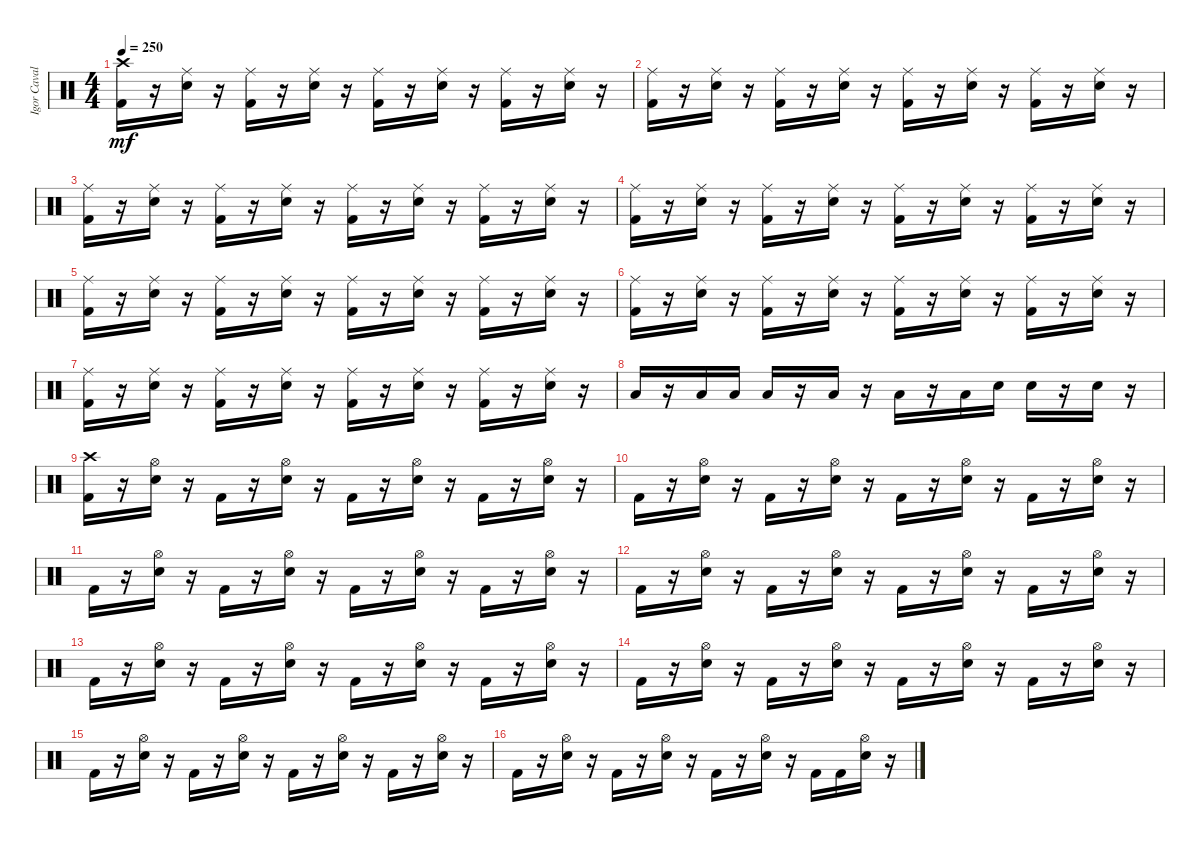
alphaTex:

\track ("Igor Cavalera" "Igor Caval") {instrument percussion}
\staff {score}
\articulation defaults
\ts (4 4)
\tempo 250
\clef neutral
\ks c
("Kick (hit) 2" "Crash high (hit)").16{dy mf} r.16 ("Snare (hit) 2" "Ride (middle)").16 r.16 ("Kick (hit) 2" "Ride (middle)").16 r.16 ("Snare (hit) 2" "Ride (middle)").16 r.16 ("Kick (hit) 2" "Ride (middle)").16 r.16 ("Snare (hit) 2" "Ride (middle)").16 r.16 ("Kick (hit) 2" "Ride (middle)").16 r.16 ("Snare (hit) 2" "Ride (middle)").16 r.16 |
("Kick (hit) 2" "Ride (middle)").16 r.16 ("Snare (hit) 2" "Ride (middle)").16 r.16 ("Kick (hit) 2" "Ride (middle)").16 r.16 ("Snare (hit) 2" "Ride (middle)").16 r.16 ("Kick (hit) 2" "Ride (middle)").16 r.16 ("Snare (hit) 2" "Ride (middle)").16 r.16 ("Kick (hit) 2" "Ride (middle)").16 r.16 ("Snare (hit) 2" "Ride (middle)").16 r.16 |
("Kick (hit) 2" "Ride (middle)").16 r.16 ("Snare (hit) 2" "Ride (middle)").16 r.16 ("Kick (hit) 2" "Ride (middle)").16 r.16 ("Snare (hit) 2" "Ride (middle)").16 r.16 ("Kick (hit) 2" "Ride (middle)").16 r.16 ("Snare (hit) 2" "Ride (middle)").16 r.16 ("Kick (hit) 2" "Ride (middle)").16 r.16 ("Snare (hit) 2" "Ride (middle)").16 r.16 |
("Kick (hit) 2" "Ride (middle)").16 r.16 ("Snare (hit) 2" "Ride (middle)").16 r.16 ("Kick (hit) 2" "Ride (middle)").16 r.16 ("Snare (hit) 2" "Ride (middle)").16 r.16 ("Kick (hit) 2" "Ride (middle)").16 r.16 ("Snare (hit) 2" "Ride (middle)").16 r.16 ("Kick (hit) 2" "Ride (middle)").16 r.16 ("Snare (hit) 2" "Ride (middle)").16 r.16 |
("Kick (hit) 2" "Ride (middle)").16 r.16 ("Snare (hit) 2" "Ride (middle)").16 r.16 ("Kick (hit) 2" "Ride (middle)").16 r.16 ("Snare (hit) 2" "Ride (middle)").16 r.16 ("Kick (hit) 2" "Ride (middle)").16 r.16 ("Snare (hit) 2" "Ride (middle)").16 r.16 ("Kick (hit) 2" "Ride (middle)").16 r.16 ("Snare (hit) 2" "Ride (middle)").16 r.16 |
("Kick (hit) 2" "Ride (middle)").16 r.16 ("Snare (hit) 2" "Ride (middle)").16 r.16 ("Kick (hit) 2" "Ride (middle)").16 r.16 ("Snare (hit) 2" "Ride (middle)").16 r.16 ("Kick (hit) 2" "Ride (middle)").16 r.16 ("Snare (hit) 2" "Ride (middle)").16 r.16 ("Kick (hit) 2" "Ride (middle)").16 r.16 ("Snare (hit) 2" "Ride (middle)").16 r.16 |
("Kick (hit) 2" "Ride (middle)").16 r.16 ("Snare (hit) 2" "Ride (middle)").16 r.16 ("Kick (hit) 2" "Ride (middle)").16 r.16 ("Snare (hit) 2" "Ride (middle)").16 r.16 ("Kick (hit) 2" "Ride (middle)").16 r.16 ("Snare (hit) 2" "Ride (middle)").16 r.16 ("Kick (hit) 2" "Ride (middle)").16 r.16 ("Snare (hit) 2" "Ride (middle)").16 r.16 |
"Low Tom (hit)".16 r.16 "Low Tom (hit)".16 "Low Tom (hit)".16 "Low Tom (hit)".16 r.16 "Low Tom (hit)".16 r.16 "Low Floor Tom (hit)".16 r.16 "Low Floor Tom (hit)".16 "Snare (hit) 2".16 "Snare (hit) 2".16 r.16 "Snare (hit) 2".16 r.16 |
("Kick (hit) 2" "Crash high (hit)").16 r.16 ("Hi-Hat (open)" "Snare (hit) 2").16 r.16 "Kick (hit) 2".16 r.16 ("Hi-Hat (open)" "Snare (hit) 2").16 r.16 "Kick (hit) 2".16 r.16 ("Hi-Hat (open)" "Snare (hit) 2").16 r.16 "Kick (hit) 2".16 r.16 ("Hi-Hat (open)" "Snare (hit) 2").16 r.16 |
"Kick (hit) 2".16 r.16 ("Hi-Hat (open)" "Snare (hit) 2").16 r.16 "Kick (hit) 2".16 r.16 ("Hi-Hat (open)" "Snare (hit) 2").16 r.16 "Kick (hit) 2".16 r.16 ("Hi-Hat (open)" "Snare (hit) 2").16 r.16 "Kick (hit) 2".16 r.16 ("Hi-Hat (open)" "Snare (hit) 2").16 r.16 |
"Kick (hit) 2".16 r.16 ("Hi-Hat (open)" "Snare (hit) 2").16 r.16 "Kick (hit) 2".16 r.16 ("Hi-Hat (open)" "Snare (hit) 2").16 r.16 "Kick (hit) 2".16 r.16 ("Hi-Hat (open)" "Snare (hit) 2").16 r.16 "Kick (hit) 2".16 r.16 ("Hi-Hat (open)" "Snare (hit) 2").16 r.16 |
"Kick (hit) 2".16 r.16 ("Hi-Hat (open)" "Snare (hit) 2").16 r.16 "Kick (hit) 2".16 r.16 ("Hi-Hat (open)" "Snare (hit) 2").16 r.16 "Kick (hit) 2".16 r.16 ("Hi-Hat (open)" "Snare (hit) 2").16 r.16 "Kick (hit) 2".16 r.16 ("Hi-Hat (open)" "Snare (hit) 2").16 r.16 |
"Kick (hit) 2".16 r.16 ("Hi-Hat (open)" "Snare (hit) 2").16 r.16 "Kick (hit) 2".16 r.16 ("Hi-Hat (open)" "Snare (hit) 2").16 r.16 "Kick (hit) 2".16 r.16 ("Hi-Hat (open)" "Snare (hit) 2").16 r.16 "Kick (hit) 2".16 r.16 ("Hi-Hat (open)" "Snare (hit) 2").16 r.16 |
"Kick (hit) 2".16 r.16 ("Hi-Hat (open)" "Snare (hit) 2").16 r.16 "Kick (hit) 2".16 r.16 ("Hi-Hat (open)" "Snare (hit) 2").16 r.16 "Kick (hit) 2".16 r.16 ("Hi-Hat (open)" "Snare (hit) 2").16 r.16 "Kick (hit) 2".16 r.16 ("Hi-Hat (open)" "Snare (hit) 2").16 r.16 |
"Kick (hit) 2".16 r.16 ("Hi-Hat (open)" "Snare (hit) 2").16 r.16 "Kick (hit) 2".16 r.16 ("Hi-Hat (open)" "Snare (hit) 2").16 r.16 "Kick (hit) 2".16 r.16 ("Hi-Hat (open)" "Snare (hit) 2").16 r.16 "Kick (hit) 2".16 r.16 ("Hi-Hat (open)" "Snare (hit) 2").16 r.16 |
"Kick (hit) 2".16 r.16 ("Hi-Hat (open)" "Snare (hit) 2").16 r.16 "Kick (hit) 2".16 r.16 ("Hi-Hat (open)" "Snare (hit) 2").16 r.16 "Kick (hit) 2".16 r.16 ("Hi-Hat (open)" "Snare (hit) 2").16 r.16 "Kick (hit) 2".16 "Kick (hit) 2".16 ("Hi-Hat (open)" "Snare (hit) 2").16 r.16
